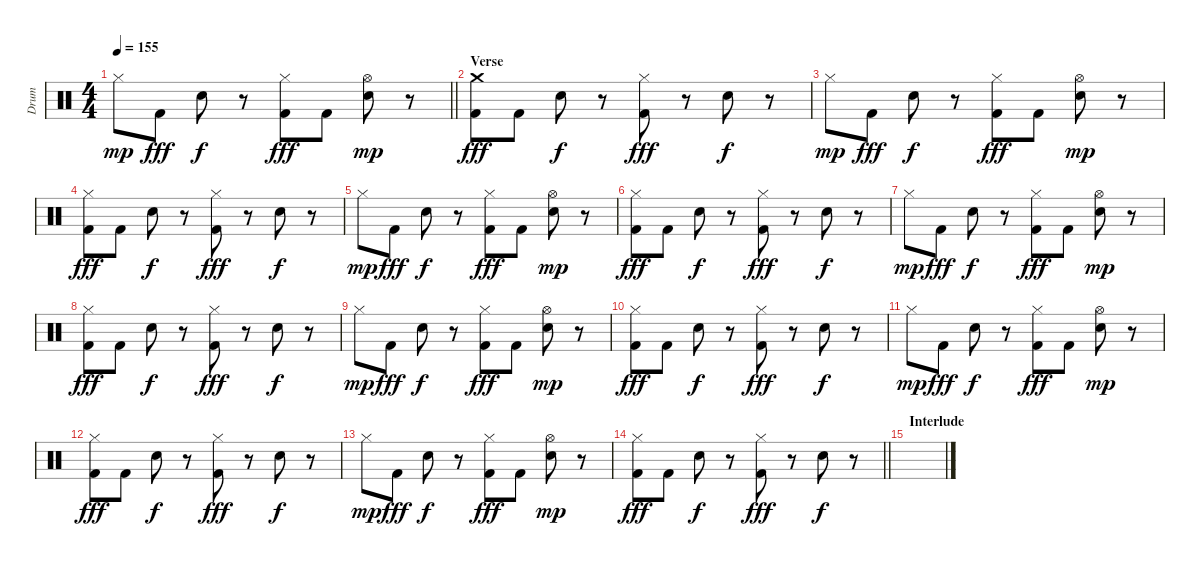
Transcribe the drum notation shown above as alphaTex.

\track ("Drum" "Drum") {instrument percussion}
\staff {score}
\articulation defaults
\ts (4 4)
\tempo 155
\clef neutral
\barLineRight lightlight
\ks c "Hi-Hat (closed)".8{dy mp} "Kick (hit) 2".8{dy fff} "Electric Snare (hit)".8{dy f}
r.8 ("Hi-Hat (closed)" "Kick (hit) 2").8{dy fff} "Kick (hit) 2".8 ("Hi-Hat (open)" "Electric Snare (hit)").8{dy mp} r.8 |
\section ("" "Verse")
("Crash medium (hit)" "Kick (hit) 2").8{dy fff} "Kick (hit) 2".8 "Electric Snare (hit)".8{dy f} r.8 ("Hi-Hat (closed)" "Kick (hit) 2").8{dy fff} r.8 "Electric Snare (hit)".8{dy f} r.8 |
"Hi-Hat (closed)".8{dy mp} "Kick (hit) 2".8{dy fff} "Electric Snare (hit)".8{dy f} r.8 ("Hi-Hat (closed)" "Kick (hit) 2").8{dy fff} "Kick (hit) 2".8 ("Hi-Hat (open)" "Electric Snare (hit)").8{dy mp} r.8 |
("Hi-Hat (closed)" "Kick (hit) 2").8{dy fff} "Kick (hit) 2".8 "Electric Snare (hit)".8{dy f} r.8 ("Hi-Hat (closed)" "Kick (hit) 2").8{dy fff} r.8 "Electric Snare (hit)".8{dy f} r.8 |
"Hi-Hat (closed)".8{dy mp} "Kick (hit) 2".8{dy fff} "Electric Snare (hit)".8{dy f} r.8 ("Hi-Hat (closed)" "Kick (hit) 2").8{dy fff} "Kick (hit) 2".8 ("Hi-Hat (open)" "Electric Snare (hit)").8{dy mp} r.8 |
("Hi-Hat (closed)" "Kick (hit) 2").8{dy fff} "Kick (hit) 2".8 "Electric Snare (hit)".8{dy f} r.8 ("Hi-Hat (closed)" "Kick (hit) 2").8{dy fff} r.8 "Electric Snare (hit)".8{dy f} r.8 |
"Hi-Hat (closed)".8{dy mp} "Kick (hit) 2".8{dy fff} "Electric Snare (hit)".8{dy f} r.8 ("Hi-Hat (closed)" "Kick (hit) 2").8{dy fff} "Kick (hit) 2".8 ("Hi-Hat (open)" "Electric Snare (hit)").8{dy mp} r.8 |
("Hi-Hat (closed)" "Kick (hit) 2").8{dy fff} "Kick (hit) 2".8 "Electric Snare (hit)".8{dy f} r.8 ("Hi-Hat (closed)" "Kick (hit) 2").8{dy fff} r.8 "Electric Snare (hit)".8{dy f} r.8 |
"Hi-Hat (closed)".8{dy mp} "Kick (hit) 2".8{dy fff} "Electric Snare (hit)".8{dy f} r.8 ("Hi-Hat (closed)" "Kick (hit) 2").8{dy fff} "Kick (hit) 2".8 ("Hi-Hat (open)" "Electric Snare (hit)").8{dy mp} r.8 |
("Hi-Hat (closed)" "Kick (hit) 2").8{dy fff} "Kick (hit) 2".8 "Electric Snare (hit)".8{dy f} r.8 ("Hi-Hat (closed)" "Kick (hit) 2").8{dy fff} r.8 "Electric Snare (hit)".8{dy f} r.8 |
"Hi-Hat (closed)".8{dy mp} "Kick (hit) 2".8{dy fff} "Electric Snare (hit)".8{dy f} r.8 ("Hi-Hat (closed)" "Kick (hit) 2").8{dy fff} "Kick (hit) 2".8 ("Hi-Hat (open)" "Electric Snare (hit)").8{dy mp} r.8 |
("Hi-Hat (closed)" "Kick (hit) 2").8{dy fff} "Kick (hit) 2".8 "Electric Snare (hit)".8{dy f} r.8 ("Hi-Hat (closed)" "Kick (hit) 2").8{dy fff} r.8 "Electric Snare (hit)".8{dy f} r.8 |
"Hi-Hat (closed)".8{dy mp} "Kick (hit) 2".8{dy fff} "Electric Snare (hit)".8{dy f} r.8 ("Hi-Hat (closed)" "Kick (hit) 2").8{dy fff} "Kick (hit) 2".8 ("Hi-Hat (open)" "Electric Snare (hit)").8{dy mp} r.8 |
\barLineRight lightlight
("Hi-Hat (closed)" "Kick (hit) 2").8{dy fff} "Kick (hit) 2".8 "Electric Snare (hit)".8{dy f} r.8 ("Hi-Hat (closed)" "Kick (hit) 2").8{dy fff} r.8 "Electric Snare (hit)".8{dy f} r.8 |
\section ("" "Interlude")
